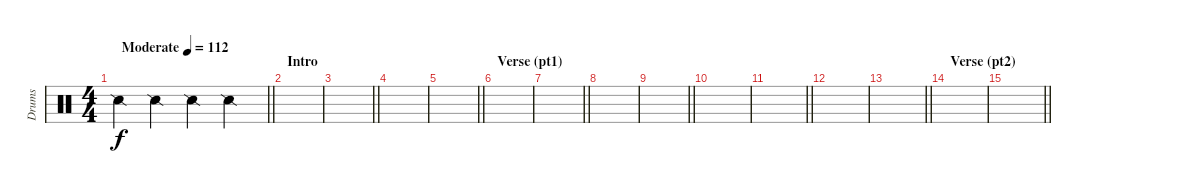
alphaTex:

\track ("Drums" "Drums") {instrument percussion}
\staff
\articulation defaults
\ts (4 4)
\tempo (112 "Moderate")
\clef neutral
\barLineRight lightlight
\ks c "Snare (side stick) 2".4{dy f} "Snare (side stick) 2".4 "Snare (side stick) 2".4 "Snare (side stick) 2".4
|
\section ("" "Intro")
|
\barLineRight lightlight
|
|
\barLineRight lightlight
|
\section ("" "Verse (pt1)")
|
\barLineRight lightlight
|
|
\barLineRight lightlight
|
|
\barLineRight lightlight
|
|
\barLineRight lightlight
|
\section ("" "Verse (pt2)")
|
\barLineRight lightlight
